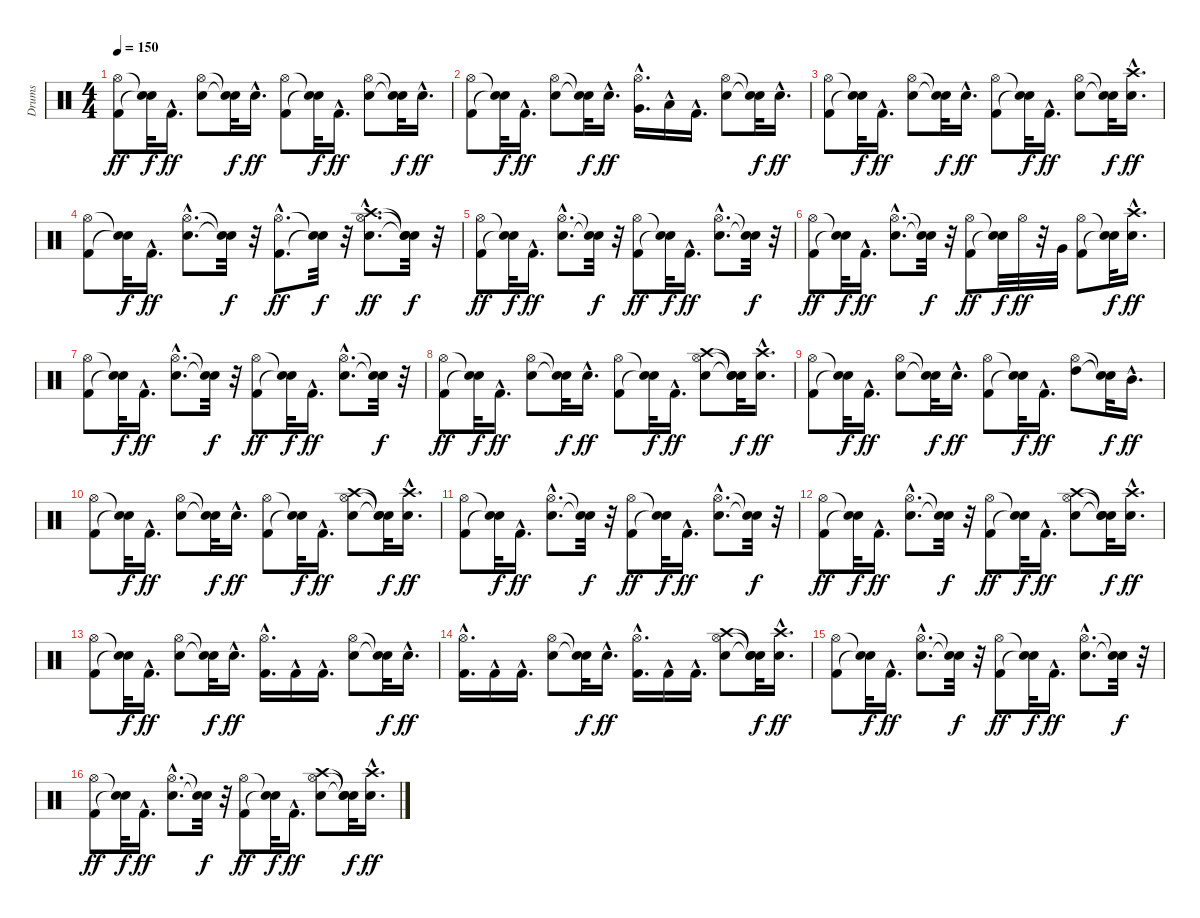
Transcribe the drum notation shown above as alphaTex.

\track ("Drums" "Drums") {instrument percussion}
\staff {score}
\articulation defaults
\ts (4 4)
\tempo 150
\clef neutral
\ks c
("Kick (hit) 2" "Hi-Hat (open)").8{dy ff} ("Snare (hit)"{t} "Snare (hit)"{t}).32{dy f} "Kick (hit) 2"{hac}.16{d dy ff} ("Snare (hit) 2" "Hi-Hat (open)").8 ("Snare (hit)"{t} "Snare (hit)"{t}).32{dy f} "Snare (hit) 2"{hac}.16{d dy ff} ("Kick (hit) 2" "Hi-Hat (open)").8 ("Snare (hit)"{t} "Snare (hit)"{t}).32{dy f} "Kick (hit) 2"{hac}.16{d dy ff} ("Snare (hit) 2" "Hi-Hat (open)").8 ("Snare (hit)"{t} "Snare (hit)"{t}).32{dy f} "Snare (hit) 2"{hac}.16{d dy ff} |
("Kick (hit) 2" "Hi-Hat (open)").8 ("Snare (hit)"{t} "Snare (hit)"{t}).32{dy f} "Kick (hit) 2"{hac}.16{d dy ff} ("Snare (hit) 2" "Hi-Hat (open)").8 ("Snare (hit)"{t} "Snare (hit)"{t}).32{dy f} "Snare (hit) 2"{hac}.16{d dy ff} ("Very Low Tom (hit)"{hac} "Hi-Hat (open)"{hac}).16{d} "Low Floor Tom (hit)"{hac}.16 "Kick (hit) 2"{hac}.16{d} ("Snare (hit) 2" "Hi-Hat (open)").8 ("Snare (hit)"{t} "Snare (hit)"{t}).32{dy f} "Snare (hit) 2"{hac}.16{d dy ff} |
("Kick (hit) 2" "Hi-Hat (open)").8 ("Snare (hit)"{t} "Snare (hit)"{t}).32{dy f} "Kick (hit) 2"{hac}.16{d dy ff} ("Snare (hit) 2" "Hi-Hat (open)").8 ("Snare (hit)"{t} "Snare (hit)"{t}).32{dy f} "Snare (hit) 2"{hac}.16{d dy ff} ("Kick (hit) 2" "Hi-Hat (open)").8 ("Snare (hit)"{t} "Snare (hit)"{t}).32{dy f} "Kick (hit) 2"{hac}.16{d dy ff} ("Snare (hit) 2" "Hi-Hat (open)").8 ("Snare (hit)"{t} "Snare (hit)"{t}).32{dy f} ("Snare (hit) 2"{hac} "Crash high (hit)"{hac}).16{d dy ff} |
("Kick (hit) 2" "Hi-Hat (open)").8 ("Snare (hit)"{t} "Snare (hit)"{t}).32{dy f} "Kick (hit) 2"{hac}.16{d dy ff} ("Snare (hit) 2"{hac} "Hi-Hat (open)"{hac}).8{d} ("Snare (hit)"{t} "Snare (hit)"{t}).32{dy f} r.32 ("Kick (hit) 2"{hac} "Hi-Hat (open)"{hac}).8{d dy ff} ("Snare (hit)"{t} "Snare (hit)"{t}).32{dy f} r.32 ("Snare (hit) 2"{hac} "Hi-Hat (open)"{hac} "Crash high (hit)"{hac}).8{d dy ff} ("Snare (hit)"{t} "Snare (hit)"{t} "Snare (hit)"{t}).32{dy f} r.32 |
("Kick (hit) 2" "Hi-Hat (open)").8{dy ff} ("Snare (hit)"{t} "Snare (hit)"{t}).32{dy f} "Kick (hit) 2"{hac}.16{d dy ff} ("Snare (hit) 2"{hac} "Hi-Hat (open)"{hac}).8{d} ("Snare (hit)"{t} "Snare (hit)"{t}).32{dy f} r.32 ("Kick (hit) 2" "Hi-Hat (open)").8{dy ff} ("Snare (hit)"{t} "Snare (hit)"{t}).32{dy f} "Kick (hit) 2"{hac}.16{d dy ff} ("Snare (hit) 2"{hac} "Hi-Hat (open)"{hac}).8{d} ("Snare (hit)"{t} "Snare (hit)"{t}).32{dy f} r.32 |
("Kick (hit) 2" "Hi-Hat (open)").8{dy ff} ("Snare (hit)"{t} "Snare (hit)"{t}).32{dy f} "Kick (hit) 2"{hac}.16{d dy ff} ("Snare (hit) 2"{hac} "Hi-Hat (open)"{hac}).8{d} ("Snare (hit)"{t} "Snare (hit)"{t}).32{dy f} r.32 ("Kick (hit) 2" "Hi-Hat (open)").8{dy ff} ("Snare (hit)"{t} "Snare (hit)"{t}).32{dy f} "Hi-Hat (open)".32{dy ff} r.32 "Very Low Tom (hit)".32 ("Kick (hit) 2" "Hi-Hat (open)").8 ("Snare (hit)"{t} "Snare (hit)"{t}).32{dy f} ("Snare (hit) 2"{hac} "Crash high (hit)"{hac}).16{d dy ff} |
("Kick (hit) 2" "Hi-Hat (open)").8 ("Snare (hit)"{t} "Snare (hit)"{t}).32{dy f} "Kick (hit) 2"{hac}.16{d dy ff} ("Snare (hit) 2"{hac} "Hi-Hat (open)"{hac}).8{d} ("Snare (hit)"{t} "Snare (hit)"{t}).32{dy f} r.32 ("Kick (hit) 2" "Hi-Hat (open)").8{dy ff} ("Snare (hit)"{t} "Snare (hit)"{t}).32{dy f} "Kick (hit) 2"{hac}.16{d dy ff} ("Snare (hit) 2"{hac} "Hi-Hat (open)"{hac}).8{d} ("Snare (hit)"{t} "Snare (hit)"{t}).32{dy f} r.32 |
("Kick (hit) 2" "Hi-Hat (open)").8{dy ff} ("Snare (hit)"{t} "Snare (hit)"{t}).32{dy f} "Kick (hit) 2"{hac}.16{d dy ff} ("Snare (hit) 2" "Hi-Hat (open)").8 ("Snare (hit)"{t} "Snare (hit)"{t}).32{dy f} "Snare (hit) 2"{hac}.16{d dy ff} ("Kick (hit) 2" "Hi-Hat (open)").8 ("Snare (hit)"{t} "Snare (hit)"{t}).32{dy f} "Kick (hit) 2"{hac}.16{d dy ff} ("Snare (hit) 2" "Hi-Hat (open)" "Crash high (hit)").8 ("Snare (hit)"{t} "Snare (hit)"{t} "Snare (hit)"{t}).32{dy f} ("Snare (hit) 2"{hac} "Crash high (hit)"{hac}).16{d dy ff} |
("Kick (hit) 2" "Hi-Hat (open)").8 ("Snare (hit)"{t} "Snare (hit)"{t}).32{dy f} "Kick (hit) 2"{hac}.16{d dy ff} ("Snare (hit) 2" "Hi-Hat (open)").8 ("Snare (hit)"{t} "Snare (hit)"{t}).32{dy f} "Snare (hit) 2"{hac}.16{d dy ff} ("Kick (hit) 2" "Hi-Hat (open)").8 ("Snare (hit)"{t} "Snare (hit)"{t}).32{dy f} "Kick (hit) 2"{hac}.16{d dy ff} ("Hi-Hat (open)" "High Tom (hit)").8 ("Snare (hit)"{t} "Snare (hit)"{t}).32{dy f} "Mid Tom (hit)"{hac}.16{d dy ff} |
("Kick (hit) 2" "Hi-Hat (open)").8 ("Snare (hit)"{t} "Snare (hit)"{t}).32{dy f} "Kick (hit) 2"{hac}.16{d dy ff} ("Snare (hit) 2" "Hi-Hat (open)").8 ("Snare (hit)"{t} "Snare (hit)"{t}).32{dy f} "Snare (hit) 2"{hac}.16{d dy ff} ("Kick (hit) 2" "Hi-Hat (open)").8 ("Snare (hit)"{t} "Snare (hit)"{t}).32{dy f} "Kick (hit) 2"{hac}.16{d dy ff} ("Snare (hit) 2" "Hi-Hat (open)" "Crash high (hit)").8 ("Snare (hit)"{t} "Snare (hit)"{t} "Snare (hit)"{t}).32{dy f} ("Snare (hit) 2"{hac} "Crash high (hit)"{hac}).16{d dy ff} |
("Kick (hit) 2" "Hi-Hat (open)").8 ("Snare (hit)"{t} "Snare (hit)"{t}).32{dy f} "Kick (hit) 2"{hac}.16{d dy ff} ("Snare (hit) 2"{hac} "Hi-Hat (open)"{hac}).8{d} ("Snare (hit)"{t} "Snare (hit)"{t}).32{dy f} r.32 ("Kick (hit) 2" "Hi-Hat (open)").8{dy ff} ("Snare (hit)"{t} "Snare (hit)"{t}).32{dy f} "Kick (hit) 2"{hac}.16{d dy ff} ("Snare (hit) 2"{hac} "Hi-Hat (open)"{hac}).8{d} ("Snare (hit)"{t} "Snare (hit)"{t}).32{dy f} r.32 |
("Kick (hit) 2" "Hi-Hat (open)").8{dy ff} ("Snare (hit)"{t} "Snare (hit)"{t}).32{dy f} "Kick (hit) 2"{hac}.16{d dy ff} ("Snare (hit) 2"{hac} "Hi-Hat (open)"{hac}).8{d} ("Snare (hit)"{t} "Snare (hit)"{t}).32{dy f} r.32 ("Kick (hit) 2" "Hi-Hat (open)").8{dy ff} ("Snare (hit)"{t} "Snare (hit)"{t}).32{dy f} "Kick (hit) 2"{hac}.16{d dy ff} ("Snare (hit) 2" "Hi-Hat (open)" "Crash high (hit)").8 ("Snare (hit)"{t} "Snare (hit)"{t} "Snare (hit)"{t}).32{dy f} ("Snare (hit) 2"{hac} "Crash high (hit)"{hac}).16{d dy ff} |
("Kick (hit) 2" "Hi-Hat (open)").8 ("Snare (hit)"{t} "Snare (hit)"{t}).32{dy f} "Kick (hit) 2"{hac}.16{d dy ff} ("Snare (hit) 2" "Hi-Hat (open)").8 ("Snare (hit)"{t} "Snare (hit)"{t}).32{dy f} "Snare (hit) 2"{hac}.16{d dy ff} ("Kick (hit) 2"{hac} "Hi-Hat (open)"{hac}).16{d} "Kick (hit) 2"{hac}.16 "Kick (hit) 2"{hac}.16{d} ("Snare (hit) 2" "Hi-Hat (open)").8 ("Snare (hit)"{t} "Snare (hit)"{t}).32{dy f} "Snare (hit) 2"{hac}.16{d dy ff} |
("Kick (hit) 2"{hac} "Hi-Hat (open)"{hac}).16{d} "Kick (hit) 2"{hac}.16 "Kick (hit) 2"{hac}.16{d} ("Snare (hit) 2" "Hi-Hat (open)").8 ("Snare (hit)"{t} "Snare (hit)"{t}).32{dy f} "Snare (hit) 2"{hac}.16{d dy ff} ("Kick (hit) 2"{hac} "Hi-Hat (open)"{hac}).16{d} "Kick (hit) 2"{hac}.16 "Kick (hit) 2"{hac}.16{d} ("Snare (hit) 2" "Hi-Hat (open)" "Crash high (hit)").8 ("Snare (hit)"{t} "Snare (hit)"{t} "Snare (hit)"{t}).32{dy f} ("Snare (hit) 2"{hac} "Crash high (hit)"{hac}).16{d dy ff} |
("Kick (hit) 2" "Hi-Hat (open)").8 ("Snare (hit)"{t} "Snare (hit)"{t}).32{dy f} "Kick (hit) 2"{hac}.16{d dy ff} ("Snare (hit) 2"{hac} "Hi-Hat (open)"{hac}).8{d} ("Snare (hit)"{t} "Snare (hit)"{t}).32{dy f} r.32 ("Kick (hit) 2" "Hi-Hat (open)").8{dy ff} ("Snare (hit)"{t} "Snare (hit)"{t}).32{dy f} "Kick (hit) 2"{hac}.16{d dy ff} ("Snare (hit) 2"{hac} "Hi-Hat (open)"{hac}).8{d} ("Snare (hit)"{t} "Snare (hit)"{t}).32{dy f} r.32 |
("Kick (hit) 2" "Hi-Hat (open)").8{dy ff} ("Snare (hit)"{t} "Snare (hit)"{t}).32{dy f} "Kick (hit) 2"{hac}.16{d dy ff} ("Snare (hit) 2"{hac} "Hi-Hat (open)"{hac}).8{d} ("Snare (hit)"{t} "Snare (hit)"{t}).32{dy f} r.32 ("Kick (hit) 2" "Hi-Hat (open)").8{dy ff} ("Snare (hit)"{t} "Snare (hit)"{t}).32{dy f} "Kick (hit) 2"{hac}.16{d dy ff} ("Snare (hit) 2" "Hi-Hat (open)" "Crash high (hit)").8 ("Snare (hit)"{t} "Snare (hit)"{t} "Snare (hit)"{t}).32{dy f} ("Snare (hit) 2"{hac} "Crash high (hit)"{hac}).16{d dy ff}
